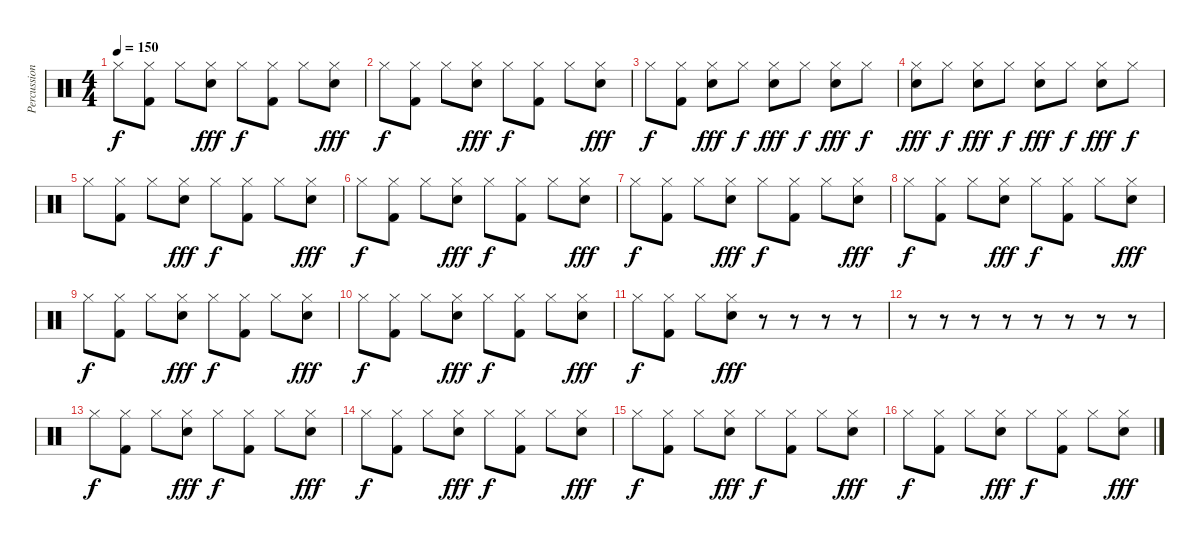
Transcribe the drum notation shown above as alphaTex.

\track ("Percussion" "Percussion") {instrument percussion}
\staff {score}
\articulation defaults
\ts (4 4)
\tempo 150
\clef neutral
\ks c "Hi-Hat (closed)".8{dy f}
("Hi-Hat (closed)" "Kick (hit) 2").8 "Hi-Hat (closed)".8 ("Hi-Hat (closed)" "Electric Snare (hit)").8{dy fff} "Hi-Hat (closed)".8{dy f} ("Hi-Hat (closed)" "Kick (hit) 2").8 "Hi-Hat (closed)".8 ("Hi-Hat (closed)" "Electric Snare (hit)").8{dy fff} |
"Hi-Hat (closed)".8{dy f} ("Hi-Hat (closed)" "Kick (hit) 2").8 "Hi-Hat (closed)".8 ("Hi-Hat (closed)" "Electric Snare (hit)").8{dy fff} "Hi-Hat (closed)".8{dy f} ("Hi-Hat (closed)" "Kick (hit) 2").8 "Hi-Hat (closed)".8 ("Hi-Hat (closed)" "Electric Snare (hit)").8{dy fff} |
"Hi-Hat (closed)".8{dy f} ("Hi-Hat (closed)" "Kick (hit) 2").8 ("Hi-Hat (closed)" "Electric Snare (hit)").8{dy fff} "Hi-Hat (closed)".8{dy f} ("Hi-Hat (closed)" "Electric Snare (hit)").8{dy fff} "Hi-Hat (closed)".8{dy f} ("Hi-Hat (closed)" "Electric Snare (hit)").8{dy fff} "Hi-Hat (closed)".8{dy f} |
("Hi-Hat (closed)" "Electric Snare (hit)").8{dy fff} "Hi-Hat (closed)".8{dy f} ("Hi-Hat (closed)" "Electric Snare (hit)").8{dy fff} "Hi-Hat (closed)".8{dy f} ("Hi-Hat (closed)" "Electric Snare (hit)").8{dy fff} "Hi-Hat (closed)".8{dy f} ("Hi-Hat (closed)" "Electric Snare (hit)").8{dy fff} "Hi-Hat (closed)".8{dy f} |
"Hi-Hat (closed)".8 ("Hi-Hat (closed)" "Kick (hit) 2").8 "Hi-Hat (closed)".8 ("Hi-Hat (closed)" "Electric Snare (hit)").8{dy fff} "Hi-Hat (closed)".8{dy f} ("Hi-Hat (closed)" "Kick (hit) 2").8 "Hi-Hat (closed)".8 ("Hi-Hat (closed)" "Electric Snare (hit)").8{dy fff} |
"Hi-Hat (closed)".8{dy f} ("Hi-Hat (closed)" "Kick (hit) 2").8 "Hi-Hat (closed)".8 ("Hi-Hat (closed)" "Electric Snare (hit)").8{dy fff} "Hi-Hat (closed)".8{dy f} ("Hi-Hat (closed)" "Kick (hit) 2").8 "Hi-Hat (closed)".8 ("Hi-Hat (closed)" "Electric Snare (hit)").8{dy fff} |
"Hi-Hat (closed)".8{dy f} ("Hi-Hat (closed)" "Kick (hit) 2").8 "Hi-Hat (closed)".8 ("Hi-Hat (closed)" "Electric Snare (hit)").8{dy fff} "Hi-Hat (closed)".8{dy f} ("Hi-Hat (closed)" "Kick (hit) 2").8 "Hi-Hat (closed)".8 ("Hi-Hat (closed)" "Electric Snare (hit)").8{dy fff} |
"Hi-Hat (closed)".8{dy f} ("Hi-Hat (closed)" "Kick (hit) 2").8 "Hi-Hat (closed)".8 ("Hi-Hat (closed)" "Electric Snare (hit)").8{dy fff} "Hi-Hat (closed)".8{dy f} ("Hi-Hat (closed)" "Kick (hit) 2").8 "Hi-Hat (closed)".8 ("Hi-Hat (closed)" "Electric Snare (hit)").8{dy fff} |
"Hi-Hat (closed)".8{dy f} ("Hi-Hat (closed)" "Kick (hit) 2").8 "Hi-Hat (closed)".8 ("Hi-Hat (closed)" "Electric Snare (hit)").8{dy fff} "Hi-Hat (closed)".8{dy f} ("Hi-Hat (closed)" "Kick (hit) 2").8 "Hi-Hat (closed)".8 ("Hi-Hat (closed)" "Electric Snare (hit)").8{dy fff} |
"Hi-Hat (closed)".8{dy f} ("Hi-Hat (closed)" "Kick (hit) 2").8 "Hi-Hat (closed)".8 ("Hi-Hat (closed)" "Electric Snare (hit)").8{dy fff} "Hi-Hat (closed)".8{dy f} ("Hi-Hat (closed)" "Kick (hit) 2").8 "Hi-Hat (closed)".8 ("Hi-Hat (closed)" "Electric Snare (hit)").8{dy fff} |
"Hi-Hat (closed)".8{dy f} ("Hi-Hat (closed)" "Kick (hit) 2").8 "Hi-Hat (closed)".8 ("Hi-Hat (closed)" "Electric Snare (hit)").8{dy fff} r.8 r.8 r.8 r.8 |
r.8 r.8 r.8 r.8 r.8 r.8 r.8 r.8 |
"Hi-Hat (closed)".8{dy f} ("Hi-Hat (closed)" "Kick (hit) 2").8 "Hi-Hat (closed)".8 ("Hi-Hat (closed)" "Electric Snare (hit)").8{dy fff} "Hi-Hat (closed)".8{dy f} ("Hi-Hat (closed)" "Kick (hit) 2").8 "Hi-Hat (closed)".8 ("Hi-Hat (closed)" "Electric Snare (hit)").8{dy fff} |
"Hi-Hat (closed)".8{dy f} ("Hi-Hat (closed)" "Kick (hit) 2").8 "Hi-Hat (closed)".8 ("Hi-Hat (closed)" "Electric Snare (hit)").8{dy fff} "Hi-Hat (closed)".8{dy f} ("Hi-Hat (closed)" "Kick (hit) 2").8 "Hi-Hat (closed)".8 ("Hi-Hat (closed)" "Electric Snare (hit)").8{dy fff} |
"Hi-Hat (closed)".8{dy f} ("Hi-Hat (closed)" "Kick (hit) 2").8 "Hi-Hat (closed)".8 ("Hi-Hat (closed)" "Electric Snare (hit)").8{dy fff} "Hi-Hat (closed)".8{dy f} ("Hi-Hat (closed)" "Kick (hit) 2").8 "Hi-Hat (closed)".8 ("Hi-Hat (closed)" "Electric Snare (hit)").8{dy fff} |
"Hi-Hat (closed)".8{dy f} ("Hi-Hat (closed)" "Kick (hit) 2").8 "Hi-Hat (closed)".8 ("Hi-Hat (closed)" "Electric Snare (hit)").8{dy fff} "Hi-Hat (closed)".8{dy f} ("Hi-Hat (closed)" "Kick (hit) 2").8 "Hi-Hat (closed)".8 ("Hi-Hat (closed)" "Electric Snare (hit)").8{dy fff}
